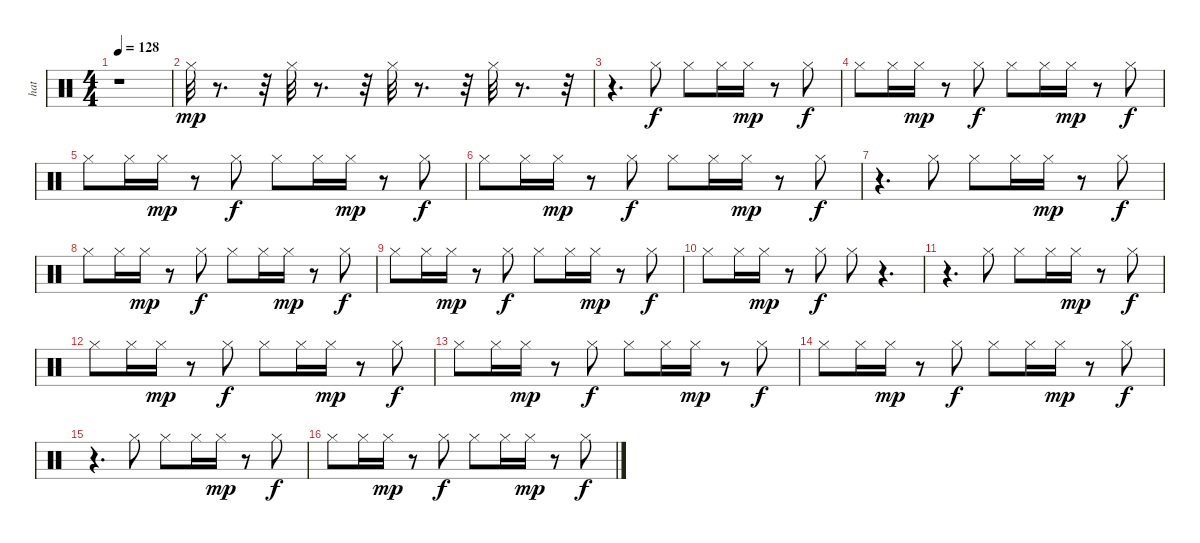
\track ("hat" "hat") {instrument percussion}
\staff {score}
\articulation defaults
\ts (4 4)
\tempo 128
\clef neutral
\ks c
r.1{dy mp} |
"Hi-Hat (closed)".32 r.8{d} r.32 "Hi-Hat (closed)".32 r.8{d} r.32 "Hi-Hat (closed)".32 r.8{d} r.32 "Hi-Hat (closed)".32 r.8{d} r.32 |
r.4{d} "Hi-Hat (closed)".8{dy f} "Hi-Hat (closed)".8 "Hi-Hat (closed)".16 "Hi-Hat (closed)".16{dy mp} r.8 "Hi-Hat (closed)".8{dy f} |
"Hi-Hat (closed)".8 "Hi-Hat (closed)".16 "Hi-Hat (closed)".16{dy mp} r.8 "Hi-Hat (closed)".8{dy f} "Hi-Hat (closed)".8 "Hi-Hat (closed)".16 "Hi-Hat (closed)".16{dy mp} r.8 "Hi-Hat (closed)".8{dy f} |
"Hi-Hat (closed)".8 "Hi-Hat (closed)".16 "Hi-Hat (closed)".16{dy mp} r.8 "Hi-Hat (closed)".8{dy f} "Hi-Hat (closed)".8 "Hi-Hat (closed)".16 "Hi-Hat (closed)".16{dy mp} r.8 "Hi-Hat (closed)".8{dy f} |
"Hi-Hat (closed)".8 "Hi-Hat (closed)".16 "Hi-Hat (closed)".16{dy mp} r.8 "Hi-Hat (closed)".8{dy f} "Hi-Hat (closed)".8 "Hi-Hat (closed)".16 "Hi-Hat (closed)".16{dy mp} r.8 "Hi-Hat (closed)".8{dy f} |
r.4{d} "Hi-Hat (closed)".8 "Hi-Hat (closed)".8 "Hi-Hat (closed)".16 "Hi-Hat (closed)".16{dy mp} r.8 "Hi-Hat (closed)".8{dy f} |
"Hi-Hat (closed)".8 "Hi-Hat (closed)".16 "Hi-Hat (closed)".16{dy mp} r.8 "Hi-Hat (closed)".8{dy f} "Hi-Hat (closed)".8 "Hi-Hat (closed)".16 "Hi-Hat (closed)".16{dy mp} r.8 "Hi-Hat (closed)".8{dy f} |
"Hi-Hat (closed)".8 "Hi-Hat (closed)".16 "Hi-Hat (closed)".16{dy mp} r.8 "Hi-Hat (closed)".8{dy f} "Hi-Hat (closed)".8 "Hi-Hat (closed)".16 "Hi-Hat (closed)".16{dy mp} r.8 "Hi-Hat (closed)".8{dy f} |
"Hi-Hat (closed)".8 "Hi-Hat (closed)".16 "Hi-Hat (closed)".16{dy mp} r.8 "Hi-Hat (closed)".8{dy f} "Hi-Hat (closed)".8 r.4{d} |
r.4{d} "Hi-Hat (closed)".8 "Hi-Hat (closed)".8 "Hi-Hat (closed)".16 "Hi-Hat (closed)".16{dy mp} r.8 "Hi-Hat (closed)".8{dy f} |
"Hi-Hat (closed)".8 "Hi-Hat (closed)".16 "Hi-Hat (closed)".16{dy mp} r.8 "Hi-Hat (closed)".8{dy f} "Hi-Hat (closed)".8 "Hi-Hat (closed)".16 "Hi-Hat (closed)".16{dy mp} r.8 "Hi-Hat (closed)".8{dy f} |
"Hi-Hat (closed)".8 "Hi-Hat (closed)".16 "Hi-Hat (closed)".16{dy mp} r.8 "Hi-Hat (closed)".8{dy f} "Hi-Hat (closed)".8 "Hi-Hat (closed)".16 "Hi-Hat (closed)".16{dy mp} r.8 "Hi-Hat (closed)".8{dy f} |
"Hi-Hat (closed)".8 "Hi-Hat (closed)".16 "Hi-Hat (closed)".16{dy mp} r.8 "Hi-Hat (closed)".8{dy f} "Hi-Hat (closed)".8 "Hi-Hat (closed)".16 "Hi-Hat (closed)".16{dy mp} r.8 "Hi-Hat (closed)".8{dy f} |
r.4{d} "Hi-Hat (closed)".8 "Hi-Hat (closed)".8 "Hi-Hat (closed)".16 "Hi-Hat (closed)".16{dy mp} r.8 "Hi-Hat (closed)".8{dy f} |
"Hi-Hat (closed)".8 "Hi-Hat (closed)".16 "Hi-Hat (closed)".16{dy mp} r.8 "Hi-Hat (closed)".8{dy f} "Hi-Hat (closed)".8 "Hi-Hat (closed)".16 "Hi-Hat (closed)".16{dy mp} r.8 "Hi-Hat (closed)".8{dy f}
